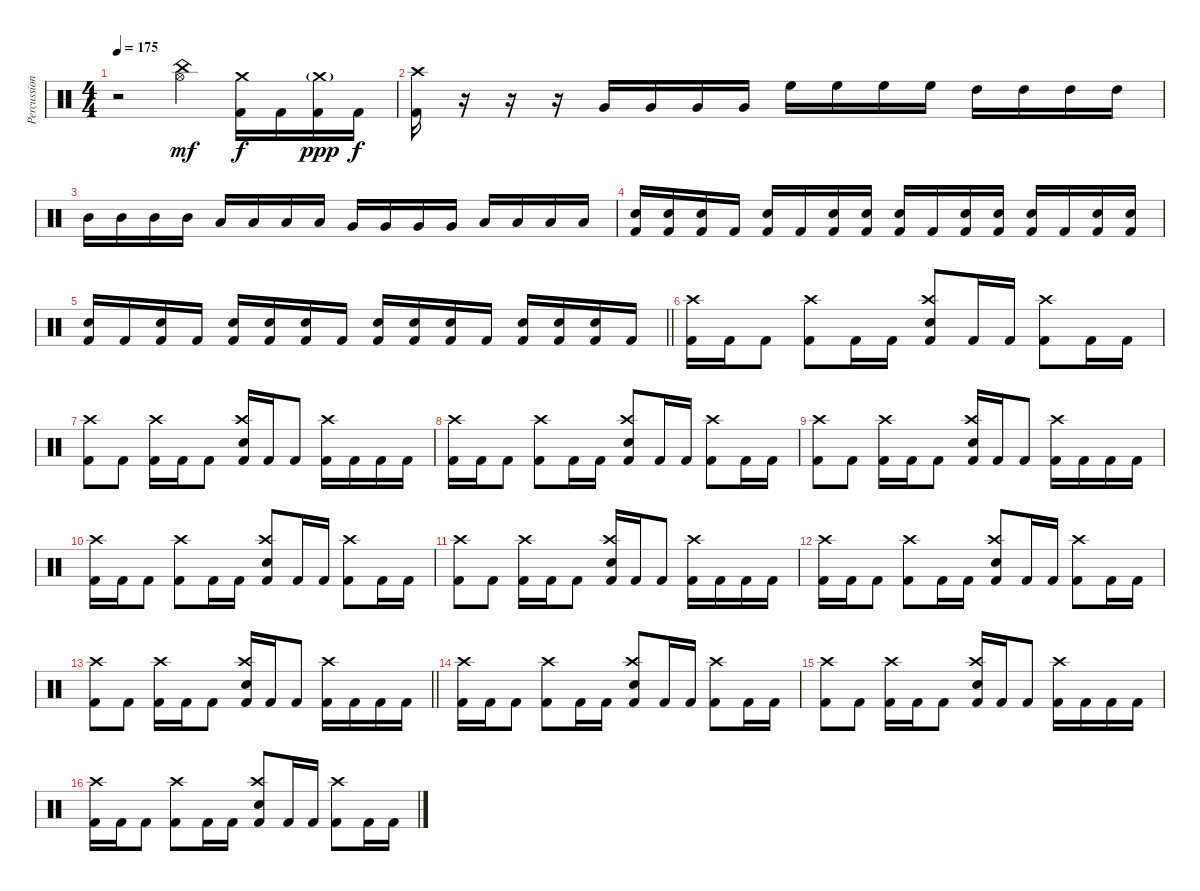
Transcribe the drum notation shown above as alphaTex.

\track ("Percussion" "Percussion") {instrument percussion}
\staff {score}
\articulation defaults
\ts (4 4)
\tempo 175
\clef neutral
\ks c
r.2{dy mf} ("China (hit)" "Hi-Hat (open)").4 ("Crash medium (hit)" "Kick (hit) 2").16{dy f} "Kick (hit) 2".16 ("Crash medium (hit)"{g} "Kick (hit) 2").16{dy ppp} "Kick (hit) 2".16{dy f} |
("Crash high (hit)" "Kick (hit) 2").16 r.16 r.16 r.16 "Very Low Tom (hit)".16 "Very Low Tom (hit)".16 "Very Low Tom (hit)".16 "Very Low Tom (hit)".16 "High Floor Tom (hit)".16 "High Floor Tom (hit)".16 "High Floor Tom (hit)".16 "High Floor Tom (hit)".16 "High Tom (hit)".16 "High Tom (hit)".16 "High Tom (hit)".16 "High Tom (hit)".16 |
"Mid Tom (hit)".16 "Mid Tom (hit)".16 "Mid Tom (hit)".16 "Mid Tom (hit)".16 "Low Tom (hit)".16 "Low Tom (hit)".16 "Low Tom (hit)".16 "Low Tom (hit)".16 "Very Low Tom (hit)".16 "Very Low Tom (hit)".16 "Very Low Tom (hit)".16 "Very Low Tom (hit)".16 "Low Floor Tom (hit)".16 "Low Floor Tom (hit)".16 "Low Floor Tom (hit)".16 "Low Floor Tom (hit)".16 |
("Snare (hit) 2" "Kick (hit) 2").16 ("Snare (hit) 2" "Kick (hit) 2").16 ("Snare (hit) 2" "Kick (hit) 2").16 "Kick (hit) 2".16 ("Snare (hit) 2" "Kick (hit) 2").16 "Kick (hit) 2".16 ("Snare (hit) 2" "Kick (hit) 2").16 ("Snare (hit) 2" "Kick (hit) 2").16 ("Snare (hit) 2" "Kick (hit) 2").16 "Kick (hit) 2".16 ("Snare (hit) 2" "Kick (hit) 2").16 ("Snare (hit) 2" "Kick (hit) 2").16 ("Snare (hit) 2" "Kick (hit) 2").16 "Kick (hit) 2".16 ("Snare (hit) 2" "Kick (hit) 2").16 ("Snare (hit) 2" "Kick (hit) 2").16 |
\barLineRight lightlight
("Snare (hit) 2" "Kick (hit) 2").16 "Kick (hit) 2".16 ("Snare (hit) 2" "Kick (hit) 2").16 "Kick (hit) 2".16 ("Snare (hit) 2" "Kick (hit) 2").16 ("Snare (hit) 2" "Kick (hit) 2").16 ("Snare (hit) 2" "Kick (hit) 2").16 "Kick (hit) 2".16 ("Snare (hit) 2" "Kick (hit) 2").16 ("Snare (hit) 2" "Kick (hit) 2").16 ("Snare (hit) 2" "Kick (hit) 2").16 "Kick (hit) 2".16 ("Snare (hit) 2" "Kick (hit) 2").16 ("Snare (hit) 2" "Kick (hit) 2").16 ("Snare (hit) 2" "Kick (hit) 2").16 "Kick (hit) 2".16 |
\section ("" "")
("Crash high (hit)" "Kick (hit) 2").16 "Kick (hit) 2".16 "Kick (hit) 2".8 ("Crash high (hit)" "Kick (hit) 2").8 "Kick (hit) 2".16 "Kick (hit) 2".16 ("Crash high (hit)" "Snare (hit) 2" "Kick (hit) 2").8 "Kick (hit) 2".16 "Kick (hit) 2".16 ("Crash high (hit)" "Kick (hit) 2").8 "Kick (hit) 2".16 "Kick (hit) 2".16 |
("Crash high (hit)" "Kick (hit) 2").8 "Kick (hit) 2".8 ("Crash high (hit)" "Kick (hit) 2").16 "Kick (hit) 2".16 "Kick (hit) 2".8 ("Crash high (hit)" "Snare (hit) 2" "Kick (hit) 2").16 "Kick (hit) 2".16 "Kick (hit) 2".8 ("Crash high (hit)" "Kick (hit) 2").16 "Kick (hit) 2".16 "Kick (hit) 2".16 "Kick (hit) 2".16 |
("Crash high (hit)" "Kick (hit) 2").16 "Kick (hit) 2".16 "Kick (hit) 2".8 ("Crash high (hit)" "Kick (hit) 2").8 "Kick (hit) 2".16 "Kick (hit) 2".16 ("Crash high (hit)" "Snare (hit) 2" "Kick (hit) 2").8 "Kick (hit) 2".16 "Kick (hit) 2".16 ("Crash high (hit)" "Kick (hit) 2").8 "Kick (hit) 2".16 "Kick (hit) 2".16 |
("Crash high (hit)" "Kick (hit) 2").8 "Kick (hit) 2".8 ("Crash high (hit)" "Kick (hit) 2").16 "Kick (hit) 2".16 "Kick (hit) 2".8 ("Crash high (hit)" "Snare (hit) 2" "Kick (hit) 2").16 "Kick (hit) 2".16 "Kick (hit) 2".8 ("Crash high (hit)" "Kick (hit) 2").16 "Kick (hit) 2".16 "Kick (hit) 2".16 "Kick (hit) 2".16 |
("Crash high (hit)" "Kick (hit) 2").16 "Kick (hit) 2".16 "Kick (hit) 2".8 ("Crash high (hit)" "Kick (hit) 2").8 "Kick (hit) 2".16 "Kick (hit) 2".16 ("Crash high (hit)" "Snare (hit) 2" "Kick (hit) 2").8 "Kick (hit) 2".16 "Kick (hit) 2".16 ("Crash high (hit)" "Kick (hit) 2").8 "Kick (hit) 2".16 "Kick (hit) 2".16 |
("Crash high (hit)" "Kick (hit) 2").8 "Kick (hit) 2".8 ("Crash high (hit)" "Kick (hit) 2").16 "Kick (hit) 2".16 "Kick (hit) 2".8 ("Crash high (hit)" "Snare (hit) 2" "Kick (hit) 2").16 "Kick (hit) 2".16 "Kick (hit) 2".8 ("Crash high (hit)" "Kick (hit) 2").16 "Kick (hit) 2".16 "Kick (hit) 2".16 "Kick (hit) 2".16 |
("Crash high (hit)" "Kick (hit) 2").16 "Kick (hit) 2".16 "Kick (hit) 2".8 ("Crash high (hit)" "Kick (hit) 2").8 "Kick (hit) 2".16 "Kick (hit) 2".16 ("Crash high (hit)" "Snare (hit) 2" "Kick (hit) 2").8 "Kick (hit) 2".16 "Kick (hit) 2".16 ("Crash high (hit)" "Kick (hit) 2").8 "Kick (hit) 2".16 "Kick (hit) 2".16 |
\barLineRight lightlight
("Crash high (hit)" "Kick (hit) 2").8 "Kick (hit) 2".8 ("Crash high (hit)" "Kick (hit) 2").16 "Kick (hit) 2".16 "Kick (hit) 2".8 ("Crash high (hit)" "Snare (hit) 2" "Kick (hit) 2").16 "Kick (hit) 2".16 "Kick (hit) 2".8 ("Crash high (hit)" "Kick (hit) 2").16 "Kick (hit) 2".16 "Kick (hit) 2".16 "Kick (hit) 2".16 |
\section ("" "")
("Crash high (hit)" "Kick (hit) 2").16 "Kick (hit) 2".16 "Kick (hit) 2".8 ("Crash high (hit)" "Kick (hit) 2").8 "Kick (hit) 2".16 "Kick (hit) 2".16 ("Crash high (hit)" "Snare (hit) 2" "Kick (hit) 2").8 "Kick (hit) 2".16 "Kick (hit) 2".16 ("Crash high (hit)" "Kick (hit) 2").8 "Kick (hit) 2".16 "Kick (hit) 2".16 |
("Crash high (hit)" "Kick (hit) 2").8 "Kick (hit) 2".8 ("Crash high (hit)" "Kick (hit) 2").16 "Kick (hit) 2".16 "Kick (hit) 2".8 ("Crash high (hit)" "Snare (hit) 2" "Kick (hit) 2").16 "Kick (hit) 2".16 "Kick (hit) 2".8 ("Crash high (hit)" "Kick (hit) 2").16 "Kick (hit) 2".16 "Kick (hit) 2".16 "Kick (hit) 2".16 |
("Crash high (hit)" "Kick (hit) 2").16 "Kick (hit) 2".16 "Kick (hit) 2".8 ("Crash high (hit)" "Kick (hit) 2").8 "Kick (hit) 2".16 "Kick (hit) 2".16 ("Crash high (hit)" "Snare (hit) 2" "Kick (hit) 2").8 "Kick (hit) 2".16 "Kick (hit) 2".16 ("Crash high (hit)" "Kick (hit) 2").8 "Kick (hit) 2".16 "Kick (hit) 2".16
